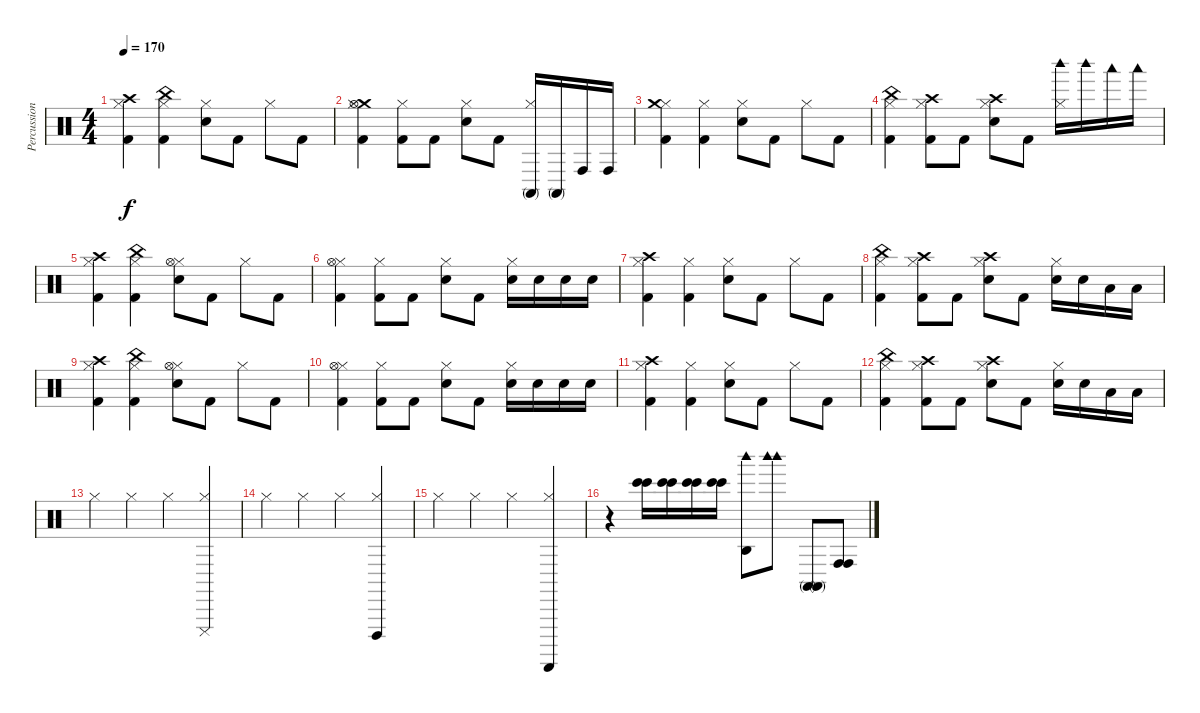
\track ("Percussion" "Percussion") {instrument percussion}
\staff {score}
\articulation defaults
\ts (4 4)
\tempo 170
\clef neutral
\ks c
("Kick (hit) 2" "Hi-Hat (closed)" "Crash high (hit)").4{dy f} ("Kick (hit) 2" "Hi-Hat (closed)" "China (hit)").4 ("Snare (hit) 2" "Hi-Hat (closed)").8 "Kick (hit) 2".8 "Hi-Hat (closed)".8 "Kick (hit) 2".8 |
("Kick (hit) 2" "Crash medium (hit)" "Hi-Hat (closed)" "Hi-Hat (open)").4 ("Kick (hit) 2" "Hi-Hat (closed)").8 "Kick (hit) 2".8 ("Snare (hit) 2" "Hi-Hat (closed)").8 "Kick (hit) 2".8 ("Conga high (mute)" "Hi-Hat (closed)").16 "Conga high (mute)".16 "Conga high (hit)".16 "Conga high (hit)".16 |
("Kick (hit) 2" "Hi-Hat (closed)" "Crash medium (hit)").4 ("Kick (hit) 2" "Hi-Hat (closed)").4 ("Snare (hit) 2" "Hi-Hat (closed)").8 "Kick (hit) 2".8 "Hi-Hat (closed)".8 "Kick (hit) 2".8 |
("Kick (hit) 2" "Hi-Hat (closed)" "China (hit)").4 ("Kick (hit) 2" "Hi-Hat (closed)" "Crash high (hit)").8 "Kick (hit) 2".8 ("Snare (hit) 2" "Hi-Hat (closed)" "Crash high (hit)").8 "Kick (hit) 2".8 ("Woodblock high (hit)" "Hi-Hat (closed)").16 "Woodblock high (hit)".16 "Woodblock low (hit)".16 "Woodblock low (hit)".16 |
("Kick (hit) 2" "Hi-Hat (closed)" "Crash high (hit)").4 ("Kick (hit) 2" "Hi-Hat (closed)" "China (hit)").4 ("Snare (hit) 2" "Hi-Hat (closed)" "Hi-Hat (open)").8 "Kick (hit) 2".8 "Hi-Hat (closed)".8 "Kick (hit) 2".8 |
("Kick (hit) 2" "Hi-Hat (closed)" "Hi-Hat (open)").4 ("Kick (hit) 2" "Hi-Hat (closed)").8 "Kick (hit) 2".8 ("Snare (hit) 2" "Hi-Hat (closed)").8 "Kick (hit) 2".8 ("Snare (hit) 2" "Hi-Hat (closed)").16 "Snare (hit) 2".16 "Snare (hit) 2".16 "Snare (hit) 2".16 |
("Kick (hit) 2" "Hi-Hat (closed)" "Crash high (hit)").4 ("Kick (hit) 2" "Hi-Hat (closed)").4 ("Snare (hit) 2" "Hi-Hat (closed)").8 "Kick (hit) 2".8 "Hi-Hat (closed)".8 "Kick (hit) 2".8 |
("Kick (hit) 2" "Hi-Hat (closed)" "China (hit)").4 ("Kick (hit) 2" "Hi-Hat (closed)" "Crash high (hit)").8 "Kick (hit) 2".8 ("Snare (hit) 2" "Hi-Hat (closed)" "Crash high (hit)").8 "Kick (hit) 2".8 ("Snare (hit) 2" "Hi-Hat (closed)").16 "Snare (hit) 2".16 "Low Floor Tom (hit)".16 "Low Floor Tom (hit)".16 |
("Kick (hit) 2" "Hi-Hat (closed)" "Crash high (hit)").4 ("Kick (hit) 2" "Hi-Hat (closed)" "China (hit)").4 ("Snare (hit) 2" "Hi-Hat (closed)" "Hi-Hat (open)").8 "Kick (hit) 2".8 "Hi-Hat (closed)".8 "Kick (hit) 2".8 |
("Kick (hit) 2" "Hi-Hat (closed)" "Hi-Hat (open)").4 ("Kick (hit) 2" "Hi-Hat (closed)").8 "Kick (hit) 2".8 ("Snare (hit) 2" "Hi-Hat (closed)").8 "Kick (hit) 2".8 ("Snare (hit) 2" "Hi-Hat (closed)").16 "Snare (hit) 2".16 "Snare (hit) 2".16 "Snare (hit) 2".16 |
("Kick (hit) 2" "Hi-Hat (closed)" "Crash high (hit)").4 ("Kick (hit) 2" "Hi-Hat (closed)").4 ("Snare (hit) 2" "Hi-Hat (closed)").8 "Kick (hit) 2".8 "Hi-Hat (closed)".8 "Kick (hit) 2".8 |
("Kick (hit) 2" "Hi-Hat (closed)" "China (hit)").4 ("Kick (hit) 2" "Hi-Hat (closed)" "Crash high (hit)").8 "Kick (hit) 2".8 ("Snare (hit) 2" "Hi-Hat (closed)" "Crash high (hit)").8 "Kick (hit) 2".8 ("Snare (hit) 2" "Hi-Hat (closed)").16 "Snare (hit) 2".16 "Low Floor Tom (hit)".16 "Low Floor Tom (hit)".16 |
"Hi-Hat (closed)".4 "Hi-Hat (closed)".4 "Hi-Hat (closed)".4 ("Hi-Hat (closed)" "Cuica (mute)").4 |
"Hi-Hat (closed)".4 "Hi-Hat (closed)".4 "Hi-Hat (closed)".4 ("Hi-Hat (closed)" "Cuica (open)").4 |
"Hi-Hat (closed)".4 "Hi-Hat (closed)".4 "Hi-Hat (closed)".4 ("Hi-Hat (closed)" "Guiro (scrap-return)").4 |
r.4 ("Bongo High (hit)" "Bongo High (hit)").16 ("Bongo High (hit)" "Bongo High (hit)").16 ("Bongo High (hit)" "Bongo High (hit)").16 ("Bongo High (hit)" "Bongo High (hit)").16 ("Agogo high (hit)" "Woodblock high (hit)").8 ("Woodblock high (hit)" "Woodblock high (hit)").8 ("Conga high (mute)" "Conga high (mute)").8 ("Conga high (hit)" "Conga high (hit)").8
